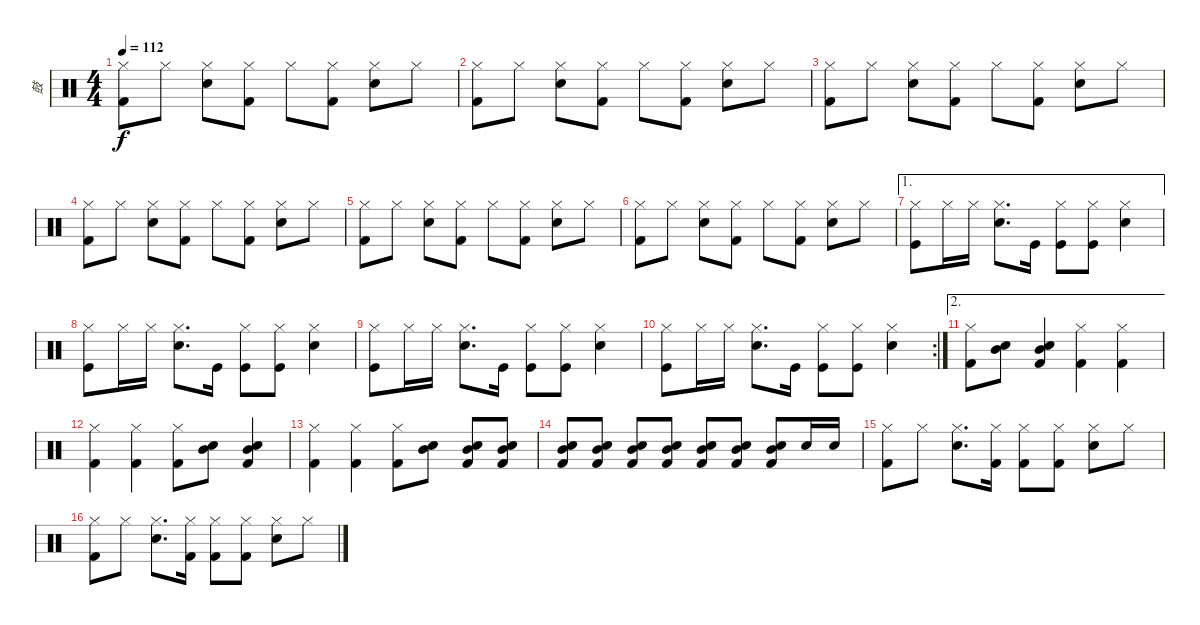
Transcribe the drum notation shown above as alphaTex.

\track ("鼓" "鼓") {instrument percussion}
\staff {score}
\articulation defaults
\ts (4 4)
\tempo 112
\clef neutral
\ks c
("Hi-Hat (closed)" "Kick (hit) 2").8{dy f} "Hi-Hat (closed)".8 ("Hi-Hat (closed)" "Snare (hit) 2").8 ("Hi-Hat (closed)" "Kick (hit) 2").8 "Hi-Hat (closed)".8 ("Hi-Hat (closed)" "Kick (hit) 2").8 ("Hi-Hat (closed)" "Snare (hit) 2").8 "Hi-Hat (closed)".8 |
("Hi-Hat (closed)" "Kick (hit) 2").8 "Hi-Hat (closed)".8 ("Hi-Hat (closed)" "Snare (hit) 2").8 ("Hi-Hat (closed)" "Kick (hit) 2").8 "Hi-Hat (closed)".8 ("Hi-Hat (closed)" "Kick (hit) 2").8 ("Hi-Hat (closed)" "Snare (hit) 2").8 "Hi-Hat (closed)".8 |
("Hi-Hat (closed)" "Kick (hit) 2").8 "Hi-Hat (closed)".8 ("Hi-Hat (closed)" "Snare (hit) 2").8 ("Hi-Hat (closed)" "Kick (hit) 2").8 "Hi-Hat (closed)".8 ("Hi-Hat (closed)" "Kick (hit) 2").8 ("Hi-Hat (closed)" "Snare (hit) 2").8 "Hi-Hat (closed)".8 |
("Hi-Hat (closed)" "Kick (hit) 2").8 "Hi-Hat (closed)".8 ("Hi-Hat (closed)" "Snare (hit) 2").8 ("Hi-Hat (closed)" "Kick (hit) 2").8 "Hi-Hat (closed)".8 ("Hi-Hat (closed)" "Kick (hit) 2").8 ("Hi-Hat (closed)" "Snare (hit) 2").8 "Hi-Hat (closed)".8 |
("Hi-Hat (closed)" "Kick (hit) 2").8 "Hi-Hat (closed)".8 ("Hi-Hat (closed)" "Snare (hit) 2").8 ("Hi-Hat (closed)" "Kick (hit) 2").8 "Hi-Hat (closed)".8 ("Hi-Hat (closed)" "Kick (hit) 2").8 ("Hi-Hat (closed)" "Snare (hit) 2").8 "Hi-Hat (closed)".8 |
("Hi-Hat (closed)" "Kick (hit) 2").8 "Hi-Hat (closed)".8 ("Hi-Hat (closed)" "Snare (hit) 2").8 ("Hi-Hat (closed)" "Kick (hit) 2").8 "Hi-Hat (closed)".8 ("Hi-Hat (closed)" "Kick (hit) 2").8 ("Hi-Hat (closed)" "Snare (hit) 2").8 "Hi-Hat (closed)".8 |
\ae 1
("Hi-Hat (closed)" "Kick (hit)").8 "Hi-Hat (closed)".16 "Hi-Hat (closed)".16 ("Hi-Hat (closed)" "Electric Snare (hit)").8{d} "Kick (hit)".16 ("Hi-Hat (closed)" "Kick (hit)").8 ("Hi-Hat (closed)" "Kick (hit)").8 ("Hi-Hat (closed)" "Electric Snare (hit)").4 |
("Hi-Hat (closed)" "Kick (hit)").8 "Hi-Hat (closed)".16 "Hi-Hat (closed)".16 ("Hi-Hat (closed)" "Electric Snare (hit)").8{d} "Kick (hit)".16 ("Hi-Hat (closed)" "Kick (hit)").8 ("Hi-Hat (closed)" "Kick (hit)").8 ("Hi-Hat (closed)" "Electric Snare (hit)").4 |
("Hi-Hat (closed)" "Kick (hit)").8 "Hi-Hat (closed)".16 "Hi-Hat (closed)".16 ("Hi-Hat (closed)" "Electric Snare (hit)").8{d} "Kick (hit)".16 ("Hi-Hat (closed)" "Kick (hit)").8 ("Hi-Hat (closed)" "Kick (hit)").8 ("Hi-Hat (closed)" "Electric Snare (hit)").4 |
\rc 2
("Hi-Hat (closed)" "Kick (hit)").8 "Hi-Hat (closed)".16 "Hi-Hat (closed)".16 ("Hi-Hat (closed)" "Electric Snare (hit)").8{d} "Kick (hit)".16 ("Hi-Hat (closed)" "Kick (hit)").8 ("Hi-Hat (closed)" "Kick (hit)").8 ("Hi-Hat (closed)" "Electric Snare (hit)").4 |
\ae 2
("Hi-Hat (closed)" "Kick (hit) 2").8 ("Mid Tom (hit)" "Snare (hit) 2").8 ("Mid Tom (hit)" "Snare (hit) 2" "Kick (hit) 2").4 ("Hi-Hat (closed)" "Kick (hit) 2").4 ("Hi-Hat (closed)" "Kick (hit) 2").4 |
("Hi-Hat (closed)" "Kick (hit) 2").4 ("Hi-Hat (closed)" "Kick (hit) 2").4 ("Hi-Hat (closed)" "Kick (hit) 2").8 ("Mid Tom (hit)" "Snare (hit) 2").8 ("Mid Tom (hit)" "Snare (hit) 2" "Kick (hit) 2").4 |
("Hi-Hat (closed)" "Kick (hit) 2").4 ("Hi-Hat (closed)" "Kick (hit) 2").4 ("Hi-Hat (closed)" "Kick (hit) 2").8 ("Mid Tom (hit)" "Snare (hit) 2").8 ("Mid Tom (hit)" "Snare (hit) 2" "Kick (hit) 2").8 ("Mid Tom (hit)" "Snare (hit) 2" "Kick (hit) 2").8 |
("Mid Tom (hit)" "Snare (hit) 2" "Kick (hit) 2").8 ("Mid Tom (hit)" "Snare (hit) 2" "Kick (hit) 2").8 ("Mid Tom (hit)" "Snare (hit) 2" "Kick (hit) 2").8 ("Mid Tom (hit)" "Snare (hit) 2" "Kick (hit) 2").8 ("Mid Tom (hit)" "Snare (hit) 2" "Kick (hit) 2").8 ("Mid Tom (hit)" "Snare (hit) 2" "Kick (hit) 2").8 ("Mid Tom (hit)" "Snare (hit) 2" "Kick (hit) 2").8 "Snare (hit) 2".16 "Snare (hit) 2".16 |
("Hi-Hat (closed)" "Kick (hit) 2").8 "Hi-Hat (closed)".8 ("Hi-Hat (closed)" "Snare (hit) 2").8{d} ("Hi-Hat (closed)" "Kick (hit) 2").16 ("Hi-Hat (closed)" "Kick (hit) 2").8 ("Hi-Hat (closed)" "Kick (hit) 2").8 ("Hi-Hat (closed)" "Snare (hit) 2").8 "Hi-Hat (closed)".8 |
("Hi-Hat (closed)" "Kick (hit) 2").8 "Hi-Hat (closed)".8 ("Hi-Hat (closed)" "Snare (hit) 2").8{d} ("Hi-Hat (closed)" "Kick (hit) 2").16 ("Hi-Hat (closed)" "Kick (hit) 2").8 ("Hi-Hat (closed)" "Kick (hit) 2").8 ("Hi-Hat (closed)" "Snare (hit) 2").8 "Hi-Hat (closed)".8
